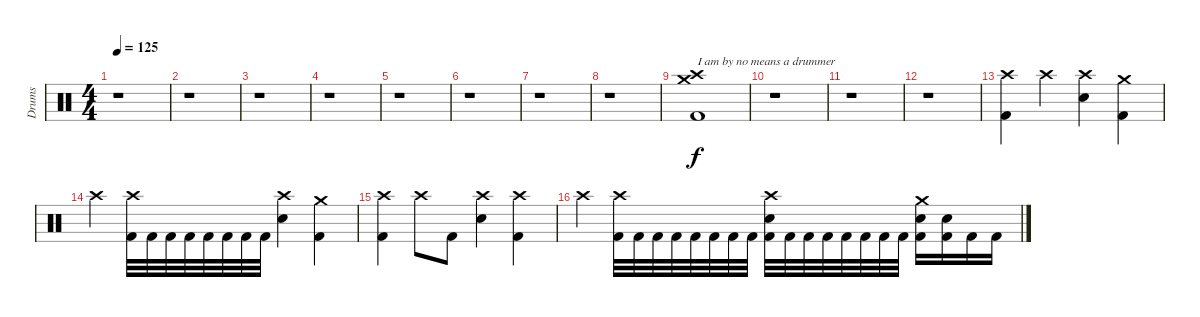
\track ("Drums" "Drums") {instrument percussion}
\staff {score}
\articulation defaults
\ts (4 4)
\tempo 125
\clef neutral
\ks c
r.1{dy f} |
r.1 |
r.1 |
r.1 |
r.1 |
r.1 |
r.1 |
r.1 |
("Crash high (hit)" "Crash medium (hit)" "Kick (hit) 2").1{txt "I am by no means a drummer"} |
r.1 |
r.1 |
r.1 |
("Crash high (hit)" "Kick (hit) 2").4 "Crash high (hit)".4 ("Crash high (hit)" "Snare (hit) 2").4 ("Crash medium (hit)" "Kick (hit) 2").4 |
"Crash high (hit)".4 ("Crash high (hit)" "Kick (hit) 2").32 "Kick (hit) 2".32 "Kick (hit) 2".32 "Kick (hit) 2".32 "Kick (hit) 2".32 "Kick (hit) 2".32 "Kick (hit) 2".32 "Kick (hit) 2".32 ("Crash high (hit)" "Snare (hit) 2").4 ("Crash medium (hit)" "Kick (hit) 2").4 |
("Crash high (hit)" "Kick (hit) 2").4 "Crash high (hit)".8 "Kick (hit) 2".8 ("Crash high (hit)" "Snare (hit) 2").4 ("Crash high (hit)" "Kick (hit) 2").4 |
"Crash high (hit)".4 ("Crash high (hit)" "Kick (hit) 2").32 "Kick (hit) 2".32 "Kick (hit) 2".32 "Kick (hit) 2".32 "Kick (hit) 2".32 "Kick (hit) 2".32 "Kick (hit) 2".32 "Kick (hit) 2".32 ("Crash high (hit)" "Snare (hit) 2" "Kick (hit) 2").32 "Kick (hit) 2".32 "Kick (hit) 2".32 "Kick (hit) 2".32 "Kick (hit) 2".32 "Kick (hit) 2".32 "Kick (hit) 2".32 "Kick (hit) 2".32 ("Kick (hit) 2" "Crash medium (hit)" "Snare (hit) 2").16 ("Kick (hit) 2" "Snare (hit) 2").16 "Kick (hit) 2".16 "Kick (hit) 2".16
